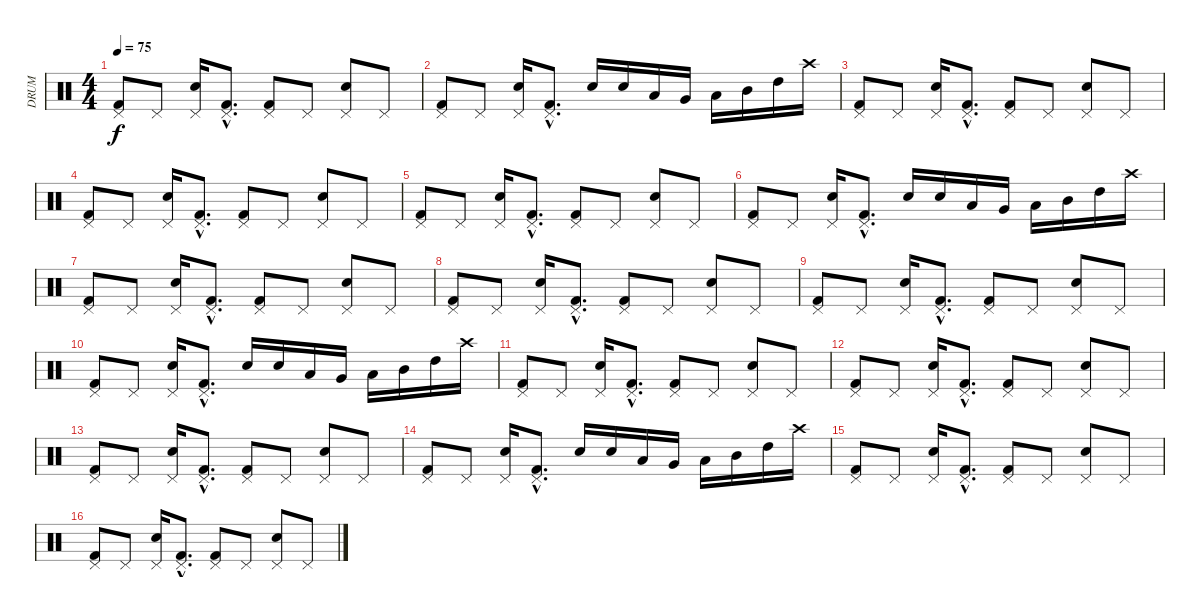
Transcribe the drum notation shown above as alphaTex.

\track ("DRUM" "DRUM") {instrument percussion}
\staff {score}
\articulation defaults
\ts (4 4)
\tempo 75
\clef neutral
\ks c
("Kick (hit) 2" "Pedal Hi-Hat (hit)").8{dy f} "Pedal Hi-Hat (hit)".8 ("Electric Snare (hit)" "Pedal Hi-Hat (hit)").16 ("Kick (hit) 2"{hac} "Pedal Hi-Hat (hit)"{hac}).8{d} ("Kick (hit) 2" "Pedal Hi-Hat (hit)").8 "Pedal Hi-Hat (hit)".8 ("Electric Snare (hit)" "Pedal Hi-Hat (hit)").8 "Pedal Hi-Hat (hit)".8 |
("Kick (hit) 2" "Pedal Hi-Hat (hit)").8 "Pedal Hi-Hat (hit)".8 ("Electric Snare (hit)" "Pedal Hi-Hat (hit)").16 ("Kick (hit) 2"{hac} "Pedal Hi-Hat (hit)"{hac}).8{d} "Electric Snare (hit)".16 "Electric Snare (hit)".16 "Low Floor Tom (hit)".16 "Very Low Tom (hit)".16 "Low Tom (hit)".16 "Mid Tom (hit)".16 "High Tom (hit)".16 "Crash high (hit)".16 |
("Kick (hit) 2" "Pedal Hi-Hat (hit)").8 "Pedal Hi-Hat (hit)".8 ("Electric Snare (hit)" "Pedal Hi-Hat (hit)").16 ("Kick (hit) 2"{hac} "Pedal Hi-Hat (hit)"{hac}).8{d} ("Kick (hit) 2" "Pedal Hi-Hat (hit)").8 "Pedal Hi-Hat (hit)".8 ("Electric Snare (hit)" "Pedal Hi-Hat (hit)").8 "Pedal Hi-Hat (hit)".8 |
("Kick (hit) 2" "Pedal Hi-Hat (hit)").8 "Pedal Hi-Hat (hit)".8 ("Electric Snare (hit)" "Pedal Hi-Hat (hit)").16 ("Kick (hit) 2"{hac} "Pedal Hi-Hat (hit)"{hac}).8{d} ("Kick (hit) 2" "Pedal Hi-Hat (hit)").8 "Pedal Hi-Hat (hit)".8 ("Electric Snare (hit)" "Pedal Hi-Hat (hit)").8 "Pedal Hi-Hat (hit)".8 |
("Kick (hit) 2" "Pedal Hi-Hat (hit)").8 "Pedal Hi-Hat (hit)".8 ("Electric Snare (hit)" "Pedal Hi-Hat (hit)").16 ("Kick (hit) 2"{hac} "Pedal Hi-Hat (hit)"{hac}).8{d} ("Kick (hit) 2" "Pedal Hi-Hat (hit)").8 "Pedal Hi-Hat (hit)".8 ("Electric Snare (hit)" "Pedal Hi-Hat (hit)").8 "Pedal Hi-Hat (hit)".8 |
("Kick (hit) 2" "Pedal Hi-Hat (hit)").8 "Pedal Hi-Hat (hit)".8 ("Electric Snare (hit)" "Pedal Hi-Hat (hit)").16 ("Kick (hit) 2"{hac} "Pedal Hi-Hat (hit)"{hac}).8{d} "Electric Snare (hit)".16 "Electric Snare (hit)".16 "Low Floor Tom (hit)".16 "Very Low Tom (hit)".16 "Low Tom (hit)".16 "Mid Tom (hit)".16 "High Tom (hit)".16 "Crash high (hit)".16 |
("Kick (hit) 2" "Pedal Hi-Hat (hit)").8 "Pedal Hi-Hat (hit)".8 ("Electric Snare (hit)" "Pedal Hi-Hat (hit)").16 ("Kick (hit) 2"{hac} "Pedal Hi-Hat (hit)"{hac}).8{d} ("Kick (hit) 2" "Pedal Hi-Hat (hit)").8 "Pedal Hi-Hat (hit)".8 ("Electric Snare (hit)" "Pedal Hi-Hat (hit)").8 "Pedal Hi-Hat (hit)".8 |
("Kick (hit) 2" "Pedal Hi-Hat (hit)").8 "Pedal Hi-Hat (hit)".8 ("Electric Snare (hit)" "Pedal Hi-Hat (hit)").16 ("Kick (hit) 2"{hac} "Pedal Hi-Hat (hit)"{hac}).8{d} ("Kick (hit) 2" "Pedal Hi-Hat (hit)").8 "Pedal Hi-Hat (hit)".8 ("Electric Snare (hit)" "Pedal Hi-Hat (hit)").8 "Pedal Hi-Hat (hit)".8 |
("Kick (hit) 2" "Pedal Hi-Hat (hit)").8 "Pedal Hi-Hat (hit)".8 ("Electric Snare (hit)" "Pedal Hi-Hat (hit)").16 ("Kick (hit) 2"{hac} "Pedal Hi-Hat (hit)"{hac}).8{d} ("Kick (hit) 2" "Pedal Hi-Hat (hit)").8 "Pedal Hi-Hat (hit)".8 ("Electric Snare (hit)" "Pedal Hi-Hat (hit)").8 "Pedal Hi-Hat (hit)".8 |
("Kick (hit) 2" "Pedal Hi-Hat (hit)").8 "Pedal Hi-Hat (hit)".8 ("Electric Snare (hit)" "Pedal Hi-Hat (hit)").16 ("Kick (hit) 2"{hac} "Pedal Hi-Hat (hit)"{hac}).8{d} "Electric Snare (hit)".16 "Electric Snare (hit)".16 "Low Floor Tom (hit)".16 "Very Low Tom (hit)".16 "Low Tom (hit)".16 "Mid Tom (hit)".16 "High Tom (hit)".16 "Crash high (hit)".16 |
("Kick (hit) 2" "Pedal Hi-Hat (hit)").8 "Pedal Hi-Hat (hit)".8 ("Electric Snare (hit)" "Pedal Hi-Hat (hit)").16 ("Kick (hit) 2"{hac} "Pedal Hi-Hat (hit)"{hac}).8{d} ("Kick (hit) 2" "Pedal Hi-Hat (hit)").8 "Pedal Hi-Hat (hit)".8 ("Electric Snare (hit)" "Pedal Hi-Hat (hit)").8 "Pedal Hi-Hat (hit)".8 |
("Kick (hit) 2" "Pedal Hi-Hat (hit)").8 "Pedal Hi-Hat (hit)".8 ("Electric Snare (hit)" "Pedal Hi-Hat (hit)").16 ("Kick (hit) 2"{hac} "Pedal Hi-Hat (hit)"{hac}).8{d} ("Kick (hit) 2" "Pedal Hi-Hat (hit)").8 "Pedal Hi-Hat (hit)".8 ("Electric Snare (hit)" "Pedal Hi-Hat (hit)").8 "Pedal Hi-Hat (hit)".8 |
("Kick (hit) 2" "Pedal Hi-Hat (hit)").8 "Pedal Hi-Hat (hit)".8 ("Electric Snare (hit)" "Pedal Hi-Hat (hit)").16 ("Kick (hit) 2"{hac} "Pedal Hi-Hat (hit)"{hac}).8{d} ("Kick (hit) 2" "Pedal Hi-Hat (hit)").8 "Pedal Hi-Hat (hit)".8 ("Electric Snare (hit)" "Pedal Hi-Hat (hit)").8 "Pedal Hi-Hat (hit)".8 |
("Kick (hit) 2" "Pedal Hi-Hat (hit)").8 "Pedal Hi-Hat (hit)".8 ("Electric Snare (hit)" "Pedal Hi-Hat (hit)").16 ("Kick (hit) 2"{hac} "Pedal Hi-Hat (hit)"{hac}).8{d} "Electric Snare (hit)".16 "Electric Snare (hit)".16 "Low Floor Tom (hit)".16 "Very Low Tom (hit)".16 "Low Tom (hit)".16 "Mid Tom (hit)".16 "High Tom (hit)".16 "Crash high (hit)".16 |
("Kick (hit) 2" "Pedal Hi-Hat (hit)").8 "Pedal Hi-Hat (hit)".8 ("Electric Snare (hit)" "Pedal Hi-Hat (hit)").16 ("Kick (hit) 2"{hac} "Pedal Hi-Hat (hit)"{hac}).8{d} ("Kick (hit) 2" "Pedal Hi-Hat (hit)").8 "Pedal Hi-Hat (hit)".8 ("Electric Snare (hit)" "Pedal Hi-Hat (hit)").8 "Pedal Hi-Hat (hit)".8 |
("Kick (hit) 2" "Pedal Hi-Hat (hit)").8 "Pedal Hi-Hat (hit)".8 ("Electric Snare (hit)" "Pedal Hi-Hat (hit)").16 ("Kick (hit) 2"{hac} "Pedal Hi-Hat (hit)"{hac}).8{d} ("Kick (hit) 2" "Pedal Hi-Hat (hit)").8 "Pedal Hi-Hat (hit)".8 ("Electric Snare (hit)" "Pedal Hi-Hat (hit)").8 "Pedal Hi-Hat (hit)".8
